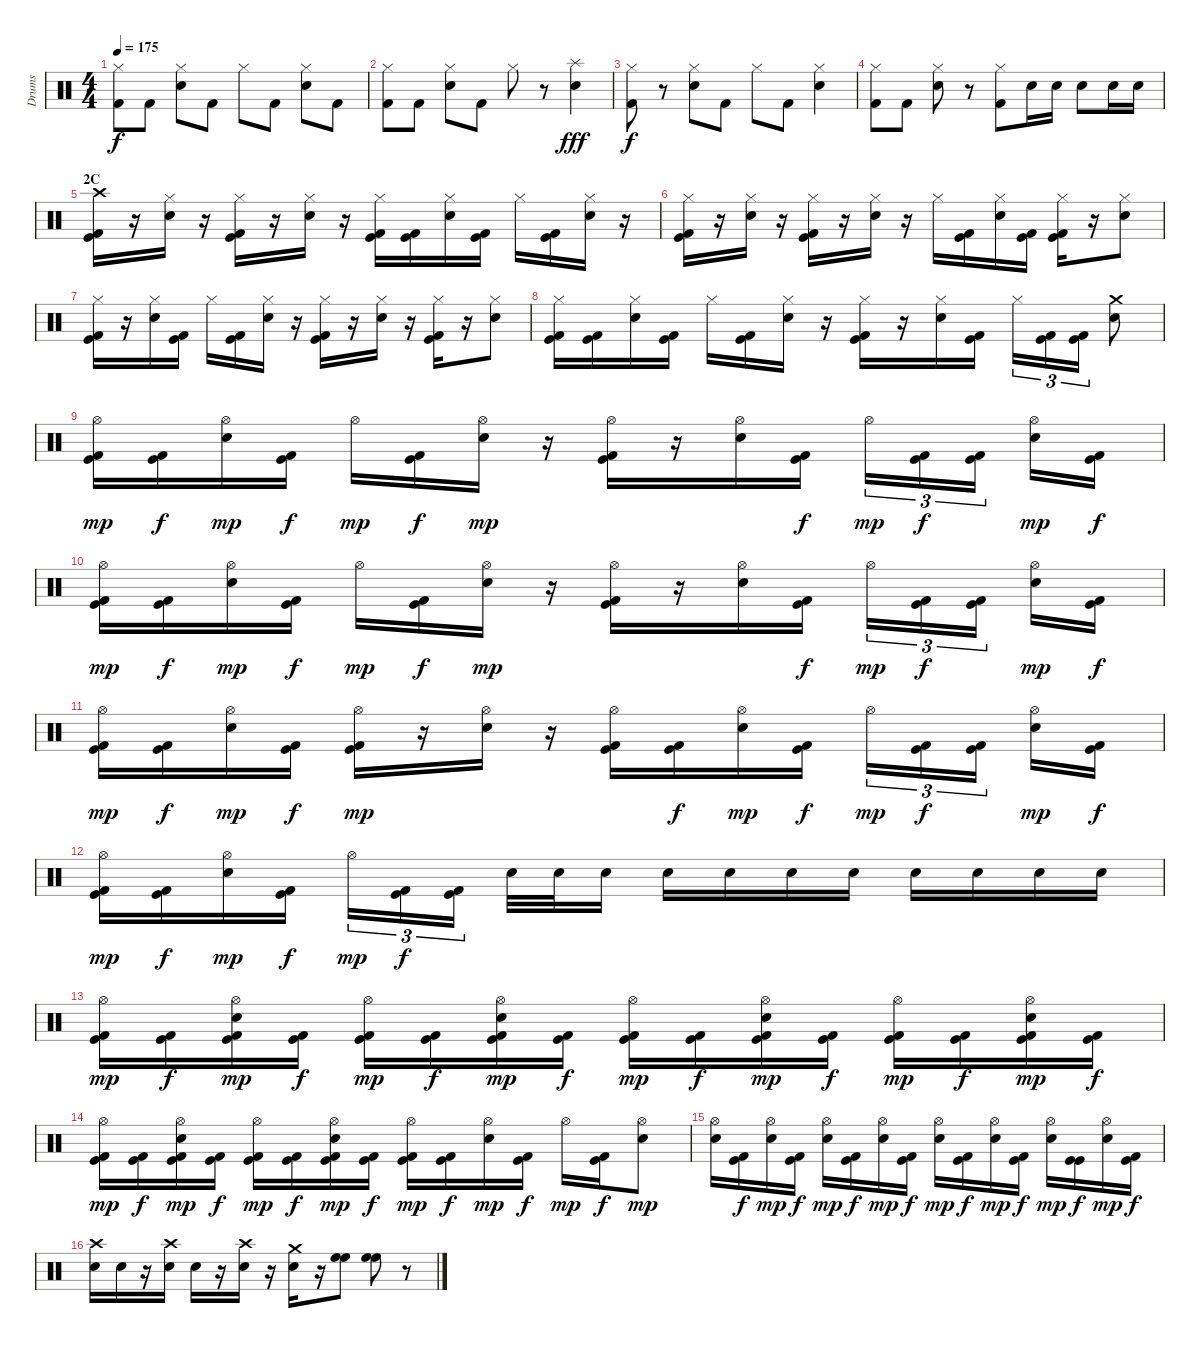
\track ("Drums" "Drums") {instrument percussion}
\staff {score}
\articulation defaults
\ts (4 4)
\tempo 175
\clef neutral
\ks c
("Hi-Hat (closed)" "Kick (hit) 2").8{dy f} "Kick (hit) 2".8 ("Hi-Hat (closed)" "Electric Snare (hit)").8 "Kick (hit) 2".8 "Hi-Hat (closed)".8 "Kick (hit) 2".8 ("Hi-Hat (closed)" "Electric Snare (hit)").8 "Kick (hit) 2".8 |
("Hi-Hat (closed)" "Kick (hit) 2").8 "Kick (hit) 2".8 ("Hi-Hat (closed)" "Electric Snare (hit)").8 "Kick (hit) 2".8 "Hi-Hat (closed)".8 r.8 ("Splash (hit)" "Electric Snare (hit)").4{dy fff} |
("Hi-Hat (closed)" "Kick (hit) 2").8{dy f} r.8 ("Hi-Hat (closed)" "Electric Snare (hit)").8 "Kick (hit) 2".8 "Hi-Hat (closed)".8 "Kick (hit) 2".8 ("Hi-Hat (closed)" "Electric Snare (hit)").4 |
("Hi-Hat (closed)" "Kick (hit) 2").8 "Kick (hit) 2".8 ("Hi-Hat (closed)" "Electric Snare (hit)").8 r.8 ("Hi-Hat (closed)" "Kick (hit) 2").8 "Electric Snare (hit)".16 "Electric Snare (hit)".16 "Electric Snare (hit)".8 "Electric Snare (hit)".16 "Electric Snare (hit)".16 |
\section ("" "2C")
("Crash high (hit)" "Kick (hit)" "Kick (hit) 2").16 r.16 ("Hi-Hat (closed)" "Electric Snare (hit)").16 r.16 ("Hi-Hat (closed)" "Kick (hit)" "Kick (hit) 2").16 r.16 ("Hi-Hat (closed)" "Electric Snare (hit)").16 r.16 ("Hi-Hat (closed)" "Kick (hit)" "Kick (hit) 2").16 ("Kick (hit)" "Kick (hit) 2").16 ("Hi-Hat (closed)" "Electric Snare (hit)").16 ("Kick (hit)" "Kick (hit) 2").16 "Hi-Hat (closed)".16 ("Kick (hit)" "Kick (hit) 2").16 ("Hi-Hat (closed)" "Electric Snare (hit)").16 r.16 |
("Hi-Hat (closed)" "Kick (hit)" "Kick (hit) 2").16 r.16 ("Hi-Hat (closed)" "Electric Snare (hit)").16 r.16 ("Hi-Hat (closed)" "Kick (hit)" "Kick (hit) 2").16 r.16 ("Hi-Hat (closed)" "Electric Snare (hit)").16 r.16 "Hi-Hat (closed)".16 ("Kick (hit)" "Kick (hit) 2").16 ("Hi-Hat (closed)" "Electric Snare (hit)").16 ("Kick (hit)" "Kick (hit) 2").16 ("Hi-Hat (closed)" "Kick (hit)" "Kick (hit) 2").16 r.16 ("Hi-Hat (closed)" "Electric Snare (hit)").8 |
("Hi-Hat (closed)" "Kick (hit)" "Kick (hit) 2").16 r.16 ("Hi-Hat (closed)" "Electric Snare (hit)").16 ("Kick (hit)" "Kick (hit) 2").16 "Hi-Hat (closed)".16 ("Kick (hit)" "Kick (hit) 2").16 ("Hi-Hat (closed)" "Electric Snare (hit)").16 r.16 ("Hi-Hat (closed)" "Kick (hit)" "Kick (hit) 2").16 r.16 ("Hi-Hat (closed)" "Electric Snare (hit)").16 r.16 ("Hi-Hat (closed)" "Kick (hit)" "Kick (hit) 2").16 r.16 ("Hi-Hat (closed)" "Electric Snare (hit)").8 |
("Hi-Hat (closed)" "Kick (hit)" "Kick (hit) 2").16 ("Kick (hit)" "Kick (hit) 2").16 ("Hi-Hat (closed)" "Electric Snare (hit)").16 ("Kick (hit)" "Kick (hit) 2").16 "Hi-Hat (closed)".16 ("Kick (hit)" "Kick (hit) 2").16 ("Hi-Hat (closed)" "Electric Snare (hit)").16 r.16 ("Hi-Hat (closed)" "Kick (hit)" "Kick (hit) 2").16 r.16 ("Hi-Hat (closed)" "Electric Snare (hit)").16 ("Kick (hit)" "Kick (hit) 2").16 "Hi-Hat (closed)".16{tu (3 2)} ("Kick (hit)" "Kick (hit) 2").16{tu (3 2)} ("Kick (hit)" "Kick (hit) 2").16{tu (3 2)} ("Crash medium (hit)" "Electric Snare (hit)").8 |
("Hi-Hat (open)" "Kick (hit)" "Kick (hit) 2").16{dy mp} ("Kick (hit)" "Kick (hit) 2").16{dy f} ("Hi-Hat (open)" "Electric Snare (hit)").16{dy mp} ("Kick (hit)" "Kick (hit) 2").16{dy f} "Hi-Hat (open)".16{dy mp} ("Kick (hit)" "Kick (hit) 2").16{dy f} ("Hi-Hat (open)" "Electric Snare (hit)").16{dy mp} r.16 ("Hi-Hat (open)" "Kick (hit)" "Kick (hit) 2").16 r.16 ("Hi-Hat (open)" "Electric Snare (hit)").16 ("Kick (hit)" "Kick (hit) 2").16{dy f} "Hi-Hat (open)".16{tu (3 2) dy mp} ("Kick (hit)" "Kick (hit) 2").16{tu (3 2) dy f} ("Kick (hit)" "Kick (hit) 2").16{tu (3 2)} ("Hi-Hat (open)" "Electric Snare (hit)").16{dy mp} ("Kick (hit)" "Kick (hit) 2").16{dy f} |
("Hi-Hat (open)" "Kick (hit)" "Kick (hit) 2").16{dy mp} ("Kick (hit)" "Kick (hit) 2").16{dy f} ("Hi-Hat (open)" "Electric Snare (hit)").16{dy mp} ("Kick (hit)" "Kick (hit) 2").16{dy f} "Hi-Hat (open)".16{dy mp} ("Kick (hit)" "Kick (hit) 2").16{dy f} ("Hi-Hat (open)" "Electric Snare (hit)").16{dy mp} r.16 ("Hi-Hat (open)" "Kick (hit)" "Kick (hit) 2").16 r.16 ("Hi-Hat (open)" "Electric Snare (hit)").16 ("Kick (hit)" "Kick (hit) 2").16{dy f} "Hi-Hat (open)".16{tu (3 2) dy mp} ("Kick (hit)" "Kick (hit) 2").16{tu (3 2) dy f} ("Kick (hit)" "Kick (hit) 2").16{tu (3 2)} ("Hi-Hat (open)" "Electric Snare (hit)").16{dy mp} ("Kick (hit)" "Kick (hit) 2").16{dy f} |
("Hi-Hat (open)" "Kick (hit)" "Kick (hit) 2").16{dy mp} ("Kick (hit)" "Kick (hit) 2").16{dy f} ("Hi-Hat (open)" "Electric Snare (hit)").16{dy mp} ("Kick (hit)" "Kick (hit) 2").16{dy f} ("Hi-Hat (open)" "Kick (hit)" "Kick (hit) 2").16{dy mp} r.16 ("Hi-Hat (open)" "Electric Snare (hit)").16 r.16 ("Hi-Hat (open)" "Kick (hit)" "Kick (hit) 2").16 ("Kick (hit)" "Kick (hit) 2").16{dy f} ("Hi-Hat (open)" "Electric Snare (hit)").16{dy mp} ("Kick (hit)" "Kick (hit) 2").16{dy f} "Hi-Hat (open)".16{tu (3 2) dy mp} ("Kick (hit)" "Kick (hit) 2").16{tu (3 2) dy f} ("Kick (hit)" "Kick (hit) 2").16{tu (3 2)} ("Hi-Hat (open)" "Electric Snare (hit)").16{dy mp} ("Kick (hit)" "Kick (hit) 2").16{dy f} |
("Hi-Hat (open)" "Kick (hit)" "Kick (hit) 2").16{dy mp} ("Kick (hit)" "Kick (hit) 2").16{dy f} ("Hi-Hat (open)" "Electric Snare (hit)").16{dy mp} ("Kick (hit)" "Kick (hit) 2").16{dy f} "Hi-Hat (open)".16{tu (3 2) dy mp} ("Kick (hit)" "Kick (hit) 2").16{tu (3 2) dy f} ("Kick (hit)" "Kick (hit) 2").16{tu (3 2)} "Electric Snare (hit)".32 "Electric Snare (hit)".32 "Electric Snare (hit)".16 "Electric Snare (hit)".16 "Electric Snare (hit)".16 "Electric Snare (hit)".16 "Electric Snare (hit)".16 "Electric Snare (hit)".16 "Electric Snare (hit)".16 "Electric Snare (hit)".16 "Electric Snare (hit)".16 |
("Hi-Hat (open)" "Kick (hit)" "Kick (hit) 2").16{dy mp} ("Kick (hit)" "Kick (hit) 2").16{dy f} ("Hi-Hat (open)" "Electric Snare (hit)" "Kick (hit)" "Kick (hit) 2").16{dy mp} ("Kick (hit)" "Kick (hit) 2").16{dy f} ("Hi-Hat (open)" "Kick (hit)" "Kick (hit) 2").16{dy mp} ("Kick (hit)" "Kick (hit) 2").16{dy f} ("Hi-Hat (open)" "Electric Snare (hit)" "Kick (hit)" "Kick (hit) 2").16{dy mp} ("Kick (hit)" "Kick (hit) 2").16{dy f} ("Hi-Hat (open)" "Kick (hit)" "Kick (hit) 2").16{dy mp} ("Kick (hit)" "Kick (hit) 2").16{dy f} ("Hi-Hat (open)" "Electric Snare (hit)" "Kick (hit)" "Kick (hit) 2").16{dy mp} ("Kick (hit)" "Kick (hit) 2").16{dy f} ("Hi-Hat (open)" "Kick (hit)" "Kick (hit) 2").16{dy mp} ("Kick (hit)" "Kick (hit) 2").16{dy f} ("Hi-Hat (open)" "Electric Snare (hit)" "Kick (hit)" "Kick (hit) 2").16{dy mp} ("Kick (hit)" "Kick (hit) 2").16{dy f} |
("Hi-Hat (open)" "Kick (hit)" "Kick (hit) 2").16{dy mp} ("Kick (hit)" "Kick (hit) 2").16{dy f} ("Hi-Hat (open)" "Electric Snare (hit)" "Kick (hit)" "Kick (hit) 2").16{dy mp} ("Kick (hit)" "Kick (hit) 2").16{dy f} ("Hi-Hat (open)" "Kick (hit)" "Kick (hit) 2").16{dy mp} ("Kick (hit)" "Kick (hit) 2").16{dy f} ("Hi-Hat (open)" "Electric Snare (hit)" "Kick (hit)" "Kick (hit) 2").16{dy mp} ("Kick (hit)" "Kick (hit) 2").16{dy f} ("Hi-Hat (open)" "Kick (hit)" "Kick (hit) 2").16{dy mp} ("Kick (hit)" "Kick (hit) 2").16{dy f} ("Hi-Hat (open)" "Electric Snare (hit)").16{dy mp} ("Kick (hit)" "Kick (hit) 2").16{dy f} "Hi-Hat (open)".16{dy mp} ("Kick (hit)" "Kick (hit) 2").16{dy f} ("Hi-Hat (open)" "Electric Snare (hit)").8{dy mp} |
("Hi-Hat (open)" "Electric Snare (hit)").16 ("Kick (hit)" "Kick (hit) 2").16{dy f} ("Hi-Hat (open)" "Electric Snare (hit)").16{dy mp} ("Kick (hit)" "Kick (hit) 2").16{dy f} ("Hi-Hat (open)" "Electric Snare (hit)").16{dy mp} ("Kick (hit)" "Kick (hit) 2").16{dy f} ("Hi-Hat (open)" "Electric Snare (hit)").16{dy mp} ("Kick (hit)" "Kick (hit) 2").16{dy f} ("Hi-Hat (open)" "Electric Snare (hit)").16{dy mp} ("Kick (hit)" "Kick (hit) 2").16{dy f} ("Hi-Hat (open)" "Electric Snare (hit)").16{dy mp} ("Kick (hit)" "Kick (hit) 2").16{dy f} ("Hi-Hat (open)" "Electric Snare (hit)").16{dy mp} ("Kick (hit)" "Kick (hit)").16{dy f} ("Hi-Hat (open)" "Electric Snare (hit)").16{dy mp} ("Kick (hit)" "Kick (hit) 2").16{dy f} |
("Crash high (hit)" "Electric Snare (hit)").16 "Electric Snare (hit)".16 r.16 ("Crash high (hit)" "Electric Snare (hit)").16 "Electric Snare (hit)".16 r.16 ("Crash high (hit)" "Electric Snare (hit)").16 r.16 ("Crash medium (hit)" "Electric Snare (hit)").16 r.16 ("High Floor Tom (hit)" "High Floor Tom (hit)").8 ("High Floor Tom (hit)" "High Floor Tom (hit)").8 r.8
